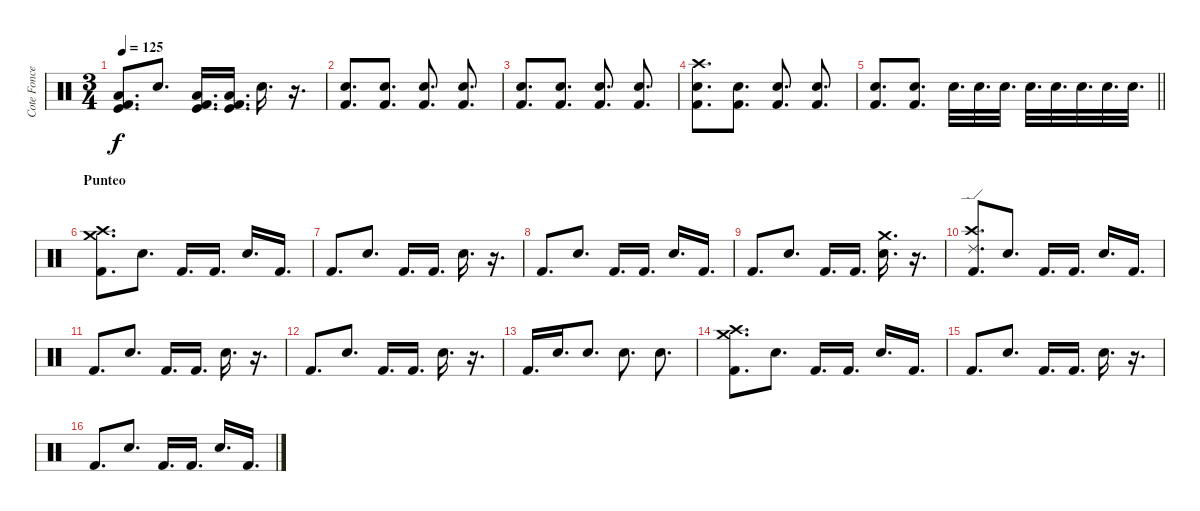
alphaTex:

\track ("Cote Foncea" "Cote Fonce") {instrument percussion}
\staff {score}
\articulation defaults
\ts (3 4)
\tempo 125
\clef neutral
\ks c
("Low Tom (hit)" "Kick (hit) 2" "Kick (hit)").8{d dy f} "Snare (hit) 2".8{d} ("Low Tom (hit)" "Kick (hit) 2" "Kick (hit)").16{d} ("Low Tom (hit)" "Kick (hit) 2" "Kick (hit)").16{d} "Snare (hit) 2".16{d} r.16{d} |
("Snare (hit) 2" "Kick (hit) 2").8{d} ("Snare (hit) 2" "Kick (hit) 2").8{d} ("Snare (hit) 2" "Kick (hit) 2").8{d} ("Snare (hit) 2" "Kick (hit) 2").8{d} |
("Snare (hit) 2" "Kick (hit) 2").8{d} ("Snare (hit) 2" "Kick (hit) 2").8{d} ("Snare (hit) 2" "Kick (hit) 2").8{d} ("Snare (hit) 2" "Kick (hit) 2").8{d} |
("Crash high (hit)" "Snare (hit) 2" "Kick (hit) 2").8{d} ("Snare (hit) 2" "Kick (hit) 2").8{d} ("Snare (hit) 2" "Kick (hit) 2").8{d} ("Snare (hit) 2" "Kick (hit) 2").8{d} |
\barLineRight lightlight
("Snare (hit) 2" "Kick (hit) 2").8{d} ("Snare (hit) 2" "Kick (hit) 2").8{d} "Snare (hit) 2".32{d} "Snare (hit) 2".32{d} "Snare (hit) 2".32{d} "Snare (hit) 2".32{d} "Snare (hit) 2".32{d} "Snare (hit) 2".32{d} "Snare (hit) 2".32{d} "Snare (hit) 2".32{d} |
\section ("" "Punteo")
("Crash high (hit)" "Crash medium (hit)" "Kick (hit) 2").8{d volume 16} "Snare (hit) 2".8{d} "Kick (hit) 2".16{d} "Kick (hit) 2".16{d} "Snare (hit) 2".16{d} "Kick (hit) 2".16{d} |
"Kick (hit) 2".8{d} "Snare (hit) 2".8{d} "Kick (hit) 2".16{d} "Kick (hit) 2".16{d} "Snare (hit) 2".16{d} r.16{d} |
"Kick (hit) 2".8{d} "Snare (hit) 2".8{d} "Kick (hit) 2".16{d} "Kick (hit) 2".16{d} "Snare (hit) 2".16{d} "Kick (hit) 2".16{d} |
"Kick (hit) 2".8{d} "Snare (hit) 2".8{d} "Kick (hit) 2".16{d} "Kick (hit) 2".16{d} ("Crash medium (hit)" "Snare (hit) 2").16{d} r.16{d} |
("Ride (edge) 2" "Crash high (hit)" "Kick (hit) 2").8{d} "Snare (hit) 2".8{d} "Kick (hit) 2".16{d} "Kick (hit) 2".16{d} "Snare (hit) 2".16{d} "Kick (hit) 2".16{d} |
"Kick (hit) 2".8{d} "Snare (hit) 2".8{d} "Kick (hit) 2".16{d} "Kick (hit) 2".16{d} "Snare (hit) 2".16{d} r.16{d} |
"Kick (hit) 2".8{d} "Snare (hit) 2".8{d} "Kick (hit) 2".16{d} "Kick (hit) 2".16{d} "Snare (hit) 2".16{d} r.16{d} |
"Kick (hit) 2".16{d} "Snare (hit) 2".16{d} "Snare (hit) 2".8{d} "Snare (hit) 2".8{d} "Snare (hit) 2".8{d} |
("Crash high (hit)" "Crash medium (hit)" "Kick (hit) 2").8{d} "Snare (hit) 2".8{d} "Kick (hit) 2".16{d} "Kick (hit) 2".16{d} "Snare (hit) 2".16{d} "Kick (hit) 2".16{d} |
"Kick (hit) 2".8{d} "Snare (hit) 2".8{d} "Kick (hit) 2".16{d} "Kick (hit) 2".16{d} "Snare (hit) 2".16{d} r.16{d} |
"Kick (hit) 2".8{d} "Snare (hit) 2".8{d} "Kick (hit) 2".16{d} "Kick (hit) 2".16{d} "Snare (hit) 2".16{d} "Kick (hit) 2".16{d}
